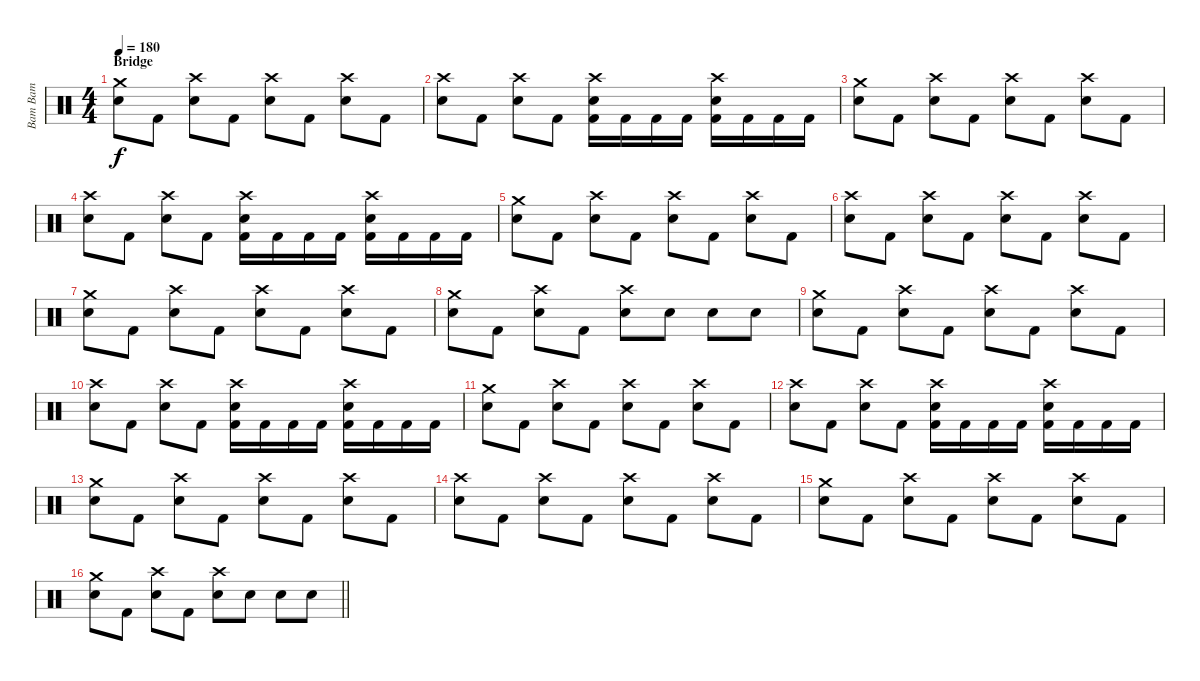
\track ("Bam Bam" "Bam Bam") {instrument percussion}
\staff {score}
\articulation defaults
\ts (4 4)
\section ("" "Bridge")
\tempo 180
\clef neutral
\ks c
("Crash medium (hit)" "Electric Snare (hit)").8{dy f} "Kick (hit) 2".8 ("Crash high (hit)" "Electric Snare (hit)").8 "Kick (hit) 2".8 ("Crash high (hit)" "Electric Snare (hit)").8 "Kick (hit) 2".8 ("Crash high (hit)" "Electric Snare (hit)").8 "Kick (hit) 2".8 |
("Crash high (hit)" "Electric Snare (hit)").8 "Kick (hit) 2".8 ("Crash high (hit)" "Electric Snare (hit)").8 "Kick (hit) 2".8 ("Crash high (hit)" "Electric Snare (hit)" "Kick (hit) 2").16 "Kick (hit) 2".16 "Kick (hit) 2".16 "Kick (hit) 2".16 ("Crash high (hit)" "Electric Snare (hit)" "Kick (hit) 2").16 "Kick (hit) 2".16 "Kick (hit) 2".16 "Kick (hit) 2".16 |
("Crash medium (hit)" "Electric Snare (hit)").8 "Kick (hit) 2".8 ("Crash high (hit)" "Electric Snare (hit)").8 "Kick (hit) 2".8 ("Crash high (hit)" "Electric Snare (hit)").8 "Kick (hit) 2".8 ("Crash high (hit)" "Electric Snare (hit)").8 "Kick (hit) 2".8 |
("Crash high (hit)" "Electric Snare (hit)").8 "Kick (hit) 2".8 ("Crash high (hit)" "Electric Snare (hit)").8 "Kick (hit) 2".8 ("Crash high (hit)" "Electric Snare (hit)" "Kick (hit) 2").16 "Kick (hit) 2".16 "Kick (hit) 2".16 "Kick (hit) 2".16 ("Crash high (hit)" "Electric Snare (hit)" "Kick (hit) 2").16 "Kick (hit) 2".16 "Kick (hit) 2".16 "Kick (hit) 2".16 |
("Crash medium (hit)" "Electric Snare (hit)").8 "Kick (hit) 2".8 ("Crash high (hit)" "Electric Snare (hit)").8 "Kick (hit) 2".8 ("Crash high (hit)" "Electric Snare (hit)").8 "Kick (hit) 2".8 ("Crash high (hit)" "Electric Snare (hit)").8 "Kick (hit) 2".8 |
("Crash high (hit)" "Electric Snare (hit)").8 "Kick (hit) 2".8 ("Crash high (hit)" "Electric Snare (hit)").8 "Kick (hit) 2".8 ("Crash high (hit)" "Electric Snare (hit)").8 "Kick (hit) 2".8 ("Crash high (hit)" "Electric Snare (hit)").8 "Kick (hit) 2".8 |
("Crash medium (hit)" "Electric Snare (hit)").8 "Kick (hit) 2".8 ("Crash high (hit)" "Electric Snare (hit)").8 "Kick (hit) 2".8 ("Crash high (hit)" "Electric Snare (hit)").8 "Kick (hit) 2".8 ("Crash high (hit)" "Electric Snare (hit)").8 "Kick (hit) 2".8 |
("Crash medium (hit)" "Electric Snare (hit)").8 "Kick (hit) 2".8 ("Crash high (hit)" "Electric Snare (hit)").8 "Kick (hit) 2".8 ("Crash high (hit)" "Electric Snare (hit)").8 "Electric Snare (hit)".8 "Electric Snare (hit)".8 "Electric Snare (hit)".8 |
("Crash medium (hit)" "Electric Snare (hit)").8 "Kick (hit) 2".8 ("Crash high (hit)" "Electric Snare (hit)").8 "Kick (hit) 2".8 ("Crash high (hit)" "Electric Snare (hit)").8 "Kick (hit) 2".8 ("Crash high (hit)" "Electric Snare (hit)").8 "Kick (hit) 2".8 |
("Crash high (hit)" "Electric Snare (hit)").8 "Kick (hit) 2".8 ("Crash high (hit)" "Electric Snare (hit)").8 "Kick (hit) 2".8 ("Crash high (hit)" "Electric Snare (hit)" "Kick (hit) 2").16 "Kick (hit) 2".16 "Kick (hit) 2".16 "Kick (hit) 2".16 ("Crash high (hit)" "Electric Snare (hit)" "Kick (hit) 2").16 "Kick (hit) 2".16 "Kick (hit) 2".16 "Kick (hit) 2".16 |
("Crash medium (hit)" "Electric Snare (hit)").8 "Kick (hit) 2".8 ("Crash high (hit)" "Electric Snare (hit)").8 "Kick (hit) 2".8 ("Crash high (hit)" "Electric Snare (hit)").8 "Kick (hit) 2".8 ("Crash high (hit)" "Electric Snare (hit)").8 "Kick (hit) 2".8 |
("Crash high (hit)" "Electric Snare (hit)").8 "Kick (hit) 2".8 ("Crash high (hit)" "Electric Snare (hit)").8 "Kick (hit) 2".8 ("Crash high (hit)" "Electric Snare (hit)" "Kick (hit) 2").16 "Kick (hit) 2".16 "Kick (hit) 2".16 "Kick (hit) 2".16 ("Crash high (hit)" "Electric Snare (hit)" "Kick (hit) 2").16 "Kick (hit) 2".16 "Kick (hit) 2".16 "Kick (hit) 2".16 |
("Crash medium (hit)" "Electric Snare (hit)").8 "Kick (hit) 2".8 ("Crash high (hit)" "Electric Snare (hit)").8 "Kick (hit) 2".8 ("Crash high (hit)" "Electric Snare (hit)").8 "Kick (hit) 2".8 ("Crash high (hit)" "Electric Snare (hit)").8 "Kick (hit) 2".8 |
("Crash high (hit)" "Electric Snare (hit)").8 "Kick (hit) 2".8 ("Crash high (hit)" "Electric Snare (hit)").8 "Kick (hit) 2".8 ("Crash high (hit)" "Electric Snare (hit)").8 "Kick (hit) 2".8 ("Crash high (hit)" "Electric Snare (hit)").8 "Kick (hit) 2".8 |
("Crash medium (hit)" "Electric Snare (hit)").8 "Kick (hit) 2".8 ("Crash high (hit)" "Electric Snare (hit)").8 "Kick (hit) 2".8 ("Crash high (hit)" "Electric Snare (hit)").8 "Kick (hit) 2".8 ("Crash high (hit)" "Electric Snare (hit)").8 "Kick (hit) 2".8 |
\barLineRight lightlight
("Crash medium (hit)" "Electric Snare (hit)").8 "Kick (hit) 2".8 ("Crash high (hit)" "Electric Snare (hit)").8 "Kick (hit) 2".8 ("Crash high (hit)" "Electric Snare (hit)").8 "Electric Snare (hit)".8 "Electric Snare (hit)".8 "Electric Snare (hit)".8
